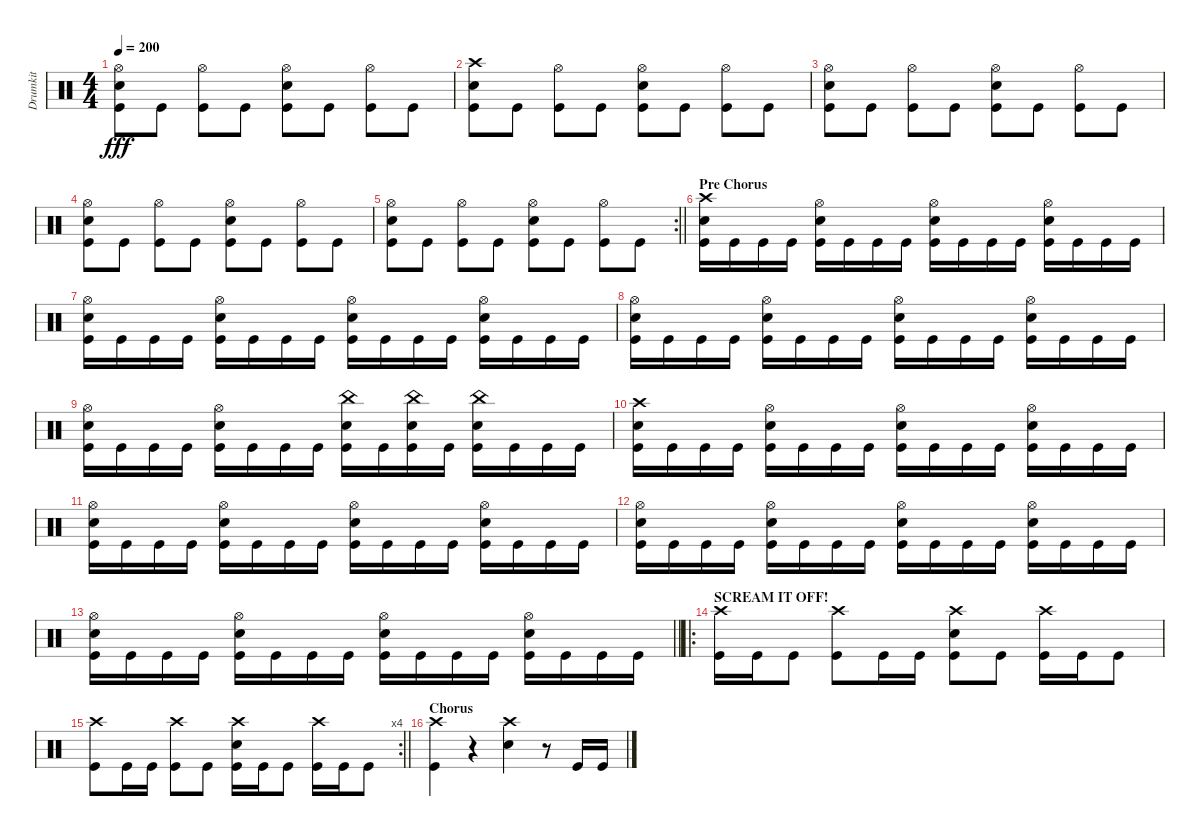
\track ("Drumkit" "Drumkit") {instrument percussion}
\staff {score}
\articulation defaults
\ts (4 4)
\tempo 200
\clef neutral
\ks c
("Kick (hit)" "Snare (hit) 2" "Hi-Hat (open)").8{dy fff} "Kick (hit)".8 ("Kick (hit)" "Hi-Hat (open)").8 "Kick (hit)".8 ("Kick (hit)" "Snare (hit) 2" "Hi-Hat (open)").8 "Kick (hit)".8 ("Kick (hit)" "Hi-Hat (open)").8 "Kick (hit)".8 |
("Kick (hit)" "Snare (hit) 2" "Crash high (hit)").8 "Kick (hit)".8 ("Kick (hit)" "Hi-Hat (open)").8 "Kick (hit)".8 ("Kick (hit)" "Snare (hit) 2" "Hi-Hat (open)").8 "Kick (hit)".8 ("Kick (hit)" "Hi-Hat (open)").8 "Kick (hit)".8 |
("Kick (hit)" "Snare (hit) 2" "Hi-Hat (open)").8 "Kick (hit)".8 ("Kick (hit)" "Hi-Hat (open)").8 "Kick (hit)".8 ("Kick (hit)" "Snare (hit) 2" "Hi-Hat (open)").8 "Kick (hit)".8 ("Kick (hit)" "Hi-Hat (open)").8 "Kick (hit)".8 |
("Kick (hit)" "Snare (hit) 2" "Hi-Hat (open)").8 "Kick (hit)".8 ("Kick (hit)" "Hi-Hat (open)").8 "Kick (hit)".8 ("Kick (hit)" "Snare (hit) 2" "Hi-Hat (open)").8 "Kick (hit)".8 ("Kick (hit)" "Hi-Hat (open)").8 "Kick (hit)".8 |
\rc 2
\barLineRight lightlight
("Kick (hit)" "Snare (hit) 2" "Hi-Hat (open)").8 "Kick (hit)".8 ("Kick (hit)" "Hi-Hat (open)").8 "Kick (hit)".8 ("Kick (hit)" "Snare (hit) 2" "Hi-Hat (open)").8 "Kick (hit)".8 ("Kick (hit)" "Hi-Hat (open)").8 "Kick (hit)".8 |
\section ("" "Pre Chorus")
("Snare (hit) 2" "Crash high (hit)" "Kick (hit)").16 "Kick (hit)".16 "Kick (hit)".16 "Kick (hit)".16 ("Snare (hit) 2" "Hi-Hat (open)" "Kick (hit)").16 "Kick (hit)".16 "Kick (hit)".16 "Kick (hit)".16 ("Snare (hit) 2" "Hi-Hat (open)" "Kick (hit)").16 "Kick (hit)".16 "Kick (hit)".16 "Kick (hit)".16 ("Snare (hit) 2" "Hi-Hat (open)" "Kick (hit)").16 "Kick (hit)".16 "Kick (hit)".16 "Kick (hit)".16 |
("Snare (hit) 2" "Hi-Hat (open)" "Kick (hit)").16 "Kick (hit)".16 "Kick (hit)".16 "Kick (hit)".16 ("Snare (hit) 2" "Hi-Hat (open)" "Kick (hit)").16 "Kick (hit)".16 "Kick (hit)".16 "Kick (hit)".16 ("Snare (hit) 2" "Hi-Hat (open)" "Kick (hit)").16 "Kick (hit)".16 "Kick (hit)".16 "Kick (hit)".16 ("Snare (hit) 2" "Hi-Hat (open)" "Kick (hit)").16 "Kick (hit)".16 "Kick (hit)".16 "Kick (hit)".16 |
("Snare (hit) 2" "Hi-Hat (open)" "Kick (hit)").16 "Kick (hit)".16 "Kick (hit)".16 "Kick (hit)".16 ("Snare (hit) 2" "Hi-Hat (open)" "Kick (hit)").16 "Kick (hit)".16 "Kick (hit)".16 "Kick (hit)".16 ("Snare (hit) 2" "Hi-Hat (open)" "Kick (hit)").16 "Kick (hit)".16 "Kick (hit)".16 "Kick (hit)".16 ("Snare (hit) 2" "Hi-Hat (open)" "Kick (hit)").16 "Kick (hit)".16 "Kick (hit)".16 "Kick (hit)".16 |
("Snare (hit) 2" "Hi-Hat (open)" "Kick (hit)").16 "Kick (hit)".16 "Kick (hit)".16 "Kick (hit)".16 ("Snare (hit) 2" "Hi-Hat (open)" "Kick (hit)").16 "Kick (hit)".16 "Kick (hit)".16 "Kick (hit)".16 ("Snare (hit) 2" "China (hit)" "Kick (hit)").16 "Kick (hit)".16 ("Snare (hit) 2" "China (hit)" "Kick (hit)").16 "Kick (hit)".16 ("Snare (hit) 2" "China (hit)" "Kick (hit)").16 "Kick (hit)".16 "Kick (hit)".16 "Kick (hit)".16 |
("Snare (hit) 2" "Crash high (hit)" "Kick (hit)").16 "Kick (hit)".16 "Kick (hit)".16 "Kick (hit)".16 ("Snare (hit) 2" "Hi-Hat (open)" "Kick (hit)").16 "Kick (hit)".16 "Kick (hit)".16 "Kick (hit)".16 ("Snare (hit) 2" "Hi-Hat (open)" "Kick (hit)").16 "Kick (hit)".16 "Kick (hit)".16 "Kick (hit)".16 ("Snare (hit) 2" "Hi-Hat (open)" "Kick (hit)").16 "Kick (hit)".16 "Kick (hit)".16 "Kick (hit)".16 |
("Snare (hit) 2" "Hi-Hat (open)" "Kick (hit)").16 "Kick (hit)".16 "Kick (hit)".16 "Kick (hit)".16 ("Snare (hit) 2" "Hi-Hat (open)" "Kick (hit)").16 "Kick (hit)".16 "Kick (hit)".16 "Kick (hit)".16 ("Snare (hit) 2" "Hi-Hat (open)" "Kick (hit)").16 "Kick (hit)".16 "Kick (hit)".16 "Kick (hit)".16 ("Snare (hit) 2" "Hi-Hat (open)" "Kick (hit)").16 "Kick (hit)".16 "Kick (hit)".16 "Kick (hit)".16 |
("Snare (hit) 2" "Hi-Hat (open)" "Kick (hit)").16 "Kick (hit)".16 "Kick (hit)".16 "Kick (hit)".16 ("Snare (hit) 2" "Hi-Hat (open)" "Kick (hit)").16 "Kick (hit)".16 "Kick (hit)".16 "Kick (hit)".16 ("Snare (hit) 2" "Hi-Hat (open)" "Kick (hit)").16 "Kick (hit)".16 "Kick (hit)".16 "Kick (hit)".16 ("Snare (hit) 2" "Hi-Hat (open)" "Kick (hit)").16 "Kick (hit)".16 "Kick (hit)".16 "Kick (hit)".16 |
\barLineRight lightlight
("Snare (hit) 2" "Hi-Hat (open)" "Kick (hit)").16 "Kick (hit)".16 "Kick (hit)".16 "Kick (hit)".16 ("Snare (hit) 2" "Hi-Hat (open)" "Kick (hit)").16 "Kick (hit)".16 "Kick (hit)".16 "Kick (hit)".16 ("Snare (hit) 2" "Hi-Hat (open)" "Kick (hit)").16 "Kick (hit)".16 "Kick (hit)".16 "Kick (hit)".16 ("Snare (hit) 2" "Hi-Hat (open)" "Kick (hit)").16 "Kick (hit)".16 "Kick (hit)".16 "Kick (hit)".16 |
\ro
\section ("" "SCREAM IT OFF!")
("Kick (hit)" "Crash high (hit)").16 "Kick (hit)".16 "Kick (hit)".8 ("Kick (hit)" "Crash high (hit)").8 "Kick (hit)".16 "Kick (hit)".16 ("Kick (hit)" "Crash high (hit)" "Snare (hit) 2").8 "Kick (hit)".8 ("Kick (hit)" "Crash high (hit)").16 "Kick (hit)".16 "Kick (hit)".8 |
\rc 4
\barLineRight lightlight
("Kick (hit)" "Crash high (hit)").8 "Kick (hit)".16 "Kick (hit)".16 ("Kick (hit)" "Crash high (hit)").8 "Kick (hit)".8 ("Kick (hit)" "Crash high (hit)" "Snare (hit) 2").16 "Kick (hit)".16 "Kick (hit)".8 ("Kick (hit)" "Crash high (hit)").16 "Kick (hit)".16 "Kick (hit)".8 |
\section ("" "Chorus")
("Crash high (hit)" "Kick (hit)").4 r.4 ("Crash high (hit)" "Snare (hit) 2").4 r.8 "Kick (hit)".16 "Kick (hit)".16
